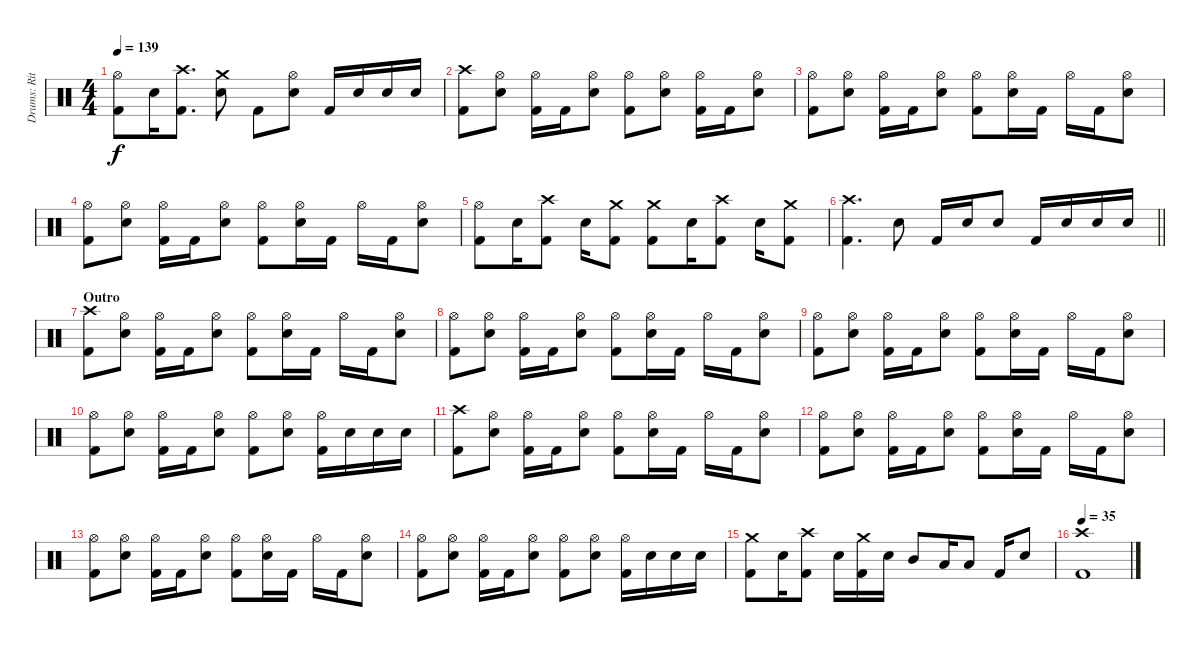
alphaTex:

\track ("Drums: Ritsu Tainaka" "Drums: Rit") {instrument percussion}
\staff {score}
\articulation defaults
\ts (4 4)
\tempo 139
\clef neutral
\ks c
("Hi-Hat (open)" "Kick (hit) 2").8{dy f} "Electric Snare (hit)".16 ("Crash high (hit)" "Kick (hit) 2").8{d} ("Crash medium (hit)" "Electric Snare (hit)").8 "Kick (hit) 2".8 ("Hi-Hat (open)" "Electric Snare (hit)").8 "Kick (hit) 2".16 "Electric Snare (hit)".16 "Electric Snare (hit)".16 "Electric Snare (hit)".16 |
("Crash high (hit)" "Kick (hit) 2").8 ("Hi-Hat (open)" "Electric Snare (hit)").8 ("Hi-Hat (open)" "Kick (hit) 2").16 "Kick (hit) 2".16 ("Hi-Hat (open)" "Electric Snare (hit)").8 ("Hi-Hat (open)" "Kick (hit) 2").8 ("Hi-Hat (open)" "Electric Snare (hit)").8 ("Hi-Hat (open)" "Kick (hit) 2").16 "Kick (hit) 2".16 ("Hi-Hat (open)" "Electric Snare (hit)").8 |
("Hi-Hat (open)" "Kick (hit) 2").8 ("Hi-Hat (open)" "Electric Snare (hit)").8 ("Hi-Hat (open)" "Kick (hit) 2").16 "Kick (hit) 2".16 ("Hi-Hat (open)" "Electric Snare (hit)").8 ("Hi-Hat (open)" "Kick (hit) 2").8 ("Hi-Hat (open)" "Electric Snare (hit)").16 "Kick (hit) 2".16 "Hi-Hat (open)".16 "Kick (hit) 2".16 ("Hi-Hat (open)" "Electric Snare (hit)").8 |
("Hi-Hat (open)" "Kick (hit) 2").8 ("Hi-Hat (open)" "Electric Snare (hit)").8 ("Hi-Hat (open)" "Kick (hit) 2").16 "Kick (hit) 2".16 ("Hi-Hat (open)" "Electric Snare (hit)").8 ("Hi-Hat (open)" "Kick (hit) 2").8 ("Hi-Hat (open)" "Electric Snare (hit)").16 "Kick (hit) 2".16 "Hi-Hat (open)".16 "Kick (hit) 2".16 ("Hi-Hat (open)" "Electric Snare (hit)").8 |
("Hi-Hat (open)" "Kick (hit) 2").8 "Electric Snare (hit)".16 ("Crash high (hit)" "Kick (hit) 2").8 "Electric Snare (hit)".16 ("Crash medium (hit)" "Kick (hit) 2").8 ("Crash medium (hit)" "Kick (hit) 2").8 "Electric Snare (hit)".16 ("Crash high (hit)" "Kick (hit) 2").8 "Electric Snare (hit)".16 ("Crash medium (hit)" "Kick (hit) 2").8 |
\barLineRight lightlight
("Crash high (hit)" "Kick (hit) 2").4{d} "Electric Snare (hit)".8 "Kick (hit) 2".16 "Electric Snare (hit)".16 "Electric Snare (hit)".8 "Kick (hit) 2".16 "Electric Snare (hit)".16 "Electric Snare (hit)".16 "Electric Snare (hit)".16 |
\section ("" "Outro")
("Crash high (hit)" "Kick (hit) 2").8 ("Hi-Hat (open)" "Electric Snare (hit)").8 ("Hi-Hat (open)" "Kick (hit) 2").16 "Kick (hit) 2".16 ("Hi-Hat (open)" "Electric Snare (hit)").8 ("Hi-Hat (open)" "Kick (hit) 2").8 ("Hi-Hat (open)" "Electric Snare (hit)").16 "Kick (hit) 2".16 "Hi-Hat (open)".16 "Kick (hit) 2".16 ("Hi-Hat (open)" "Electric Snare (hit)").8 |
("Hi-Hat (open)" "Kick (hit) 2").8 ("Hi-Hat (open)" "Electric Snare (hit)").8 ("Hi-Hat (open)" "Kick (hit) 2").16 "Kick (hit) 2".16 ("Hi-Hat (open)" "Electric Snare (hit)").8 ("Hi-Hat (open)" "Kick (hit) 2").8 ("Hi-Hat (open)" "Electric Snare (hit)").16 "Kick (hit) 2".16 "Hi-Hat (open)".16 "Kick (hit) 2".16 ("Hi-Hat (open)" "Electric Snare (hit)").8 |
("Hi-Hat (open)" "Kick (hit) 2").8 ("Hi-Hat (open)" "Electric Snare (hit)").8 ("Hi-Hat (open)" "Kick (hit) 2").16 "Kick (hit) 2".16 ("Hi-Hat (open)" "Electric Snare (hit)").8 ("Hi-Hat (open)" "Kick (hit) 2").8 ("Hi-Hat (open)" "Electric Snare (hit)").16 "Kick (hit) 2".16 "Hi-Hat (open)".16 "Kick (hit) 2".16 ("Hi-Hat (open)" "Electric Snare (hit)").8 |
("Hi-Hat (open)" "Kick (hit) 2").8 ("Hi-Hat (open)" "Electric Snare (hit)").8 ("Hi-Hat (open)" "Kick (hit) 2").16 "Kick (hit) 2".16 ("Hi-Hat (open)" "Electric Snare (hit)").8 ("Hi-Hat (open)" "Kick (hit) 2").8 ("Hi-Hat (open)" "Electric Snare (hit)").8 ("Hi-Hat (open)" "Kick (hit) 2").16 "Electric Snare (hit)".16 "Electric Snare (hit)".16 "Electric Snare (hit)".16 |
("Crash high (hit)" "Kick (hit) 2").8 ("Hi-Hat (open)" "Electric Snare (hit)").8 ("Hi-Hat (open)" "Kick (hit) 2").16 "Kick (hit) 2".16 ("Hi-Hat (open)" "Electric Snare (hit)").8 ("Hi-Hat (open)" "Kick (hit) 2").8 ("Hi-Hat (open)" "Electric Snare (hit)").16 "Kick (hit) 2".16 "Hi-Hat (open)".16 "Kick (hit) 2".16 ("Hi-Hat (open)" "Electric Snare (hit)").8 |
("Hi-Hat (open)" "Kick (hit) 2").8 ("Hi-Hat (open)" "Electric Snare (hit)").8 ("Hi-Hat (open)" "Kick (hit) 2").16 "Kick (hit) 2".16 ("Hi-Hat (open)" "Electric Snare (hit)").8 ("Hi-Hat (open)" "Kick (hit) 2").8 ("Hi-Hat (open)" "Electric Snare (hit)").16 "Kick (hit) 2".16 "Hi-Hat (open)".16 "Kick (hit) 2".16 ("Hi-Hat (open)" "Electric Snare (hit)").8 |
("Hi-Hat (open)" "Kick (hit) 2").8 ("Hi-Hat (open)" "Electric Snare (hit)").8 ("Hi-Hat (open)" "Kick (hit) 2").16 "Kick (hit) 2".16 ("Hi-Hat (open)" "Electric Snare (hit)").8 ("Hi-Hat (open)" "Kick (hit) 2").8 ("Hi-Hat (open)" "Electric Snare (hit)").16 "Kick (hit) 2".16 "Hi-Hat (open)".16 "Kick (hit) 2".16 ("Hi-Hat (open)" "Electric Snare (hit)").8 |
("Hi-Hat (open)" "Kick (hit) 2").8 ("Hi-Hat (open)" "Electric Snare (hit)").8 ("Hi-Hat (open)" "Kick (hit) 2").16 "Kick (hit) 2".16 ("Hi-Hat (open)" "Electric Snare (hit)").8 ("Hi-Hat (open)" "Kick (hit) 2").8 ("Hi-Hat (open)" "Electric Snare (hit)").8 ("Hi-Hat (open)" "Kick (hit) 2").16 "Electric Snare (hit)".16 "Electric Snare (hit)".16 "Electric Snare (hit)".16 |
("Crash medium (hit)" "Kick (hit) 2").8 "Electric Snare (hit)".16 ("Crash high (hit)" "Kick (hit) 2").8 "Electric Snare (hit)".16 ("Crash medium (hit)" "Kick (hit) 2").16 "Electric Snare (hit)".16 "Mid Tom (hit)".8 "Low Tom (hit)".16 "Low Tom (hit)".8 "Kick (hit) 2".16 "Electric Snare (hit)".8 |
\tempo 35
("Crash high (hit)" "Kick (hit) 2").1{volume 0}
